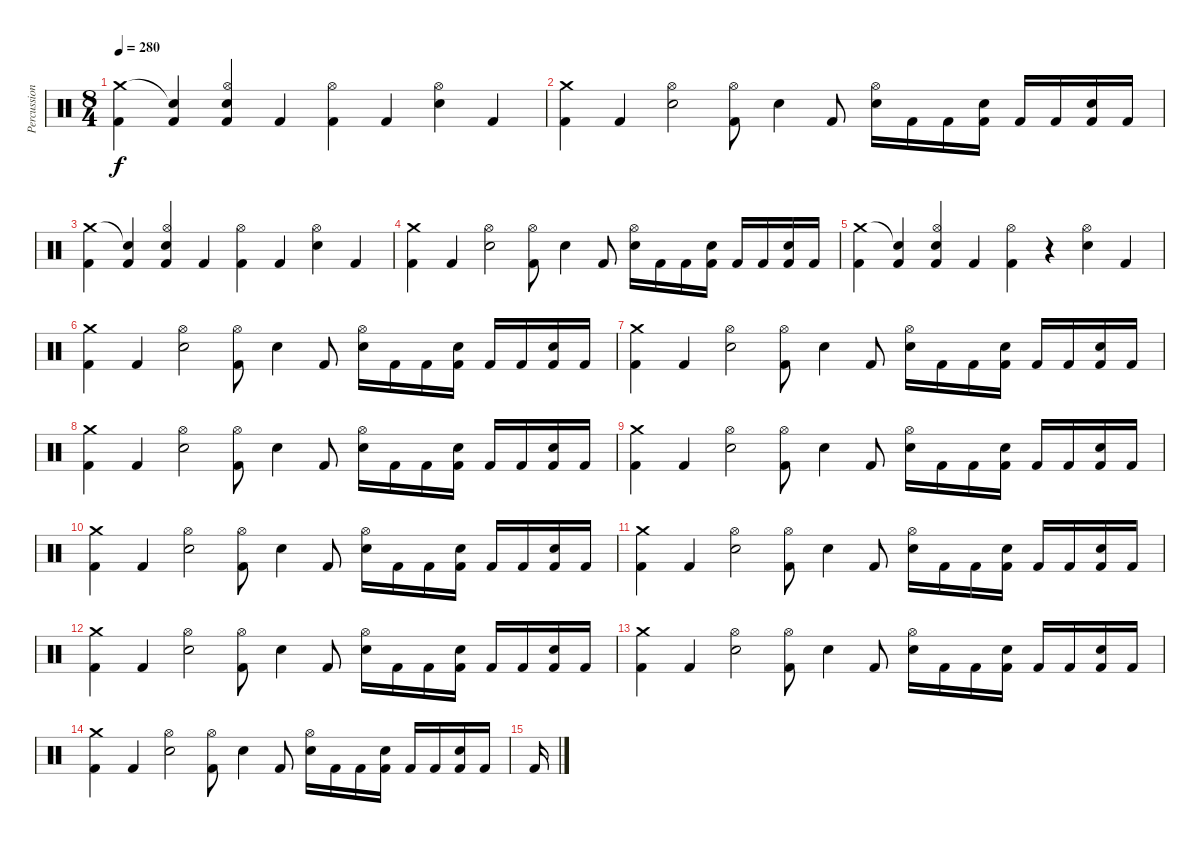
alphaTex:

\track ("Percussion" "Percussion") {instrument percussion}
\staff {score}
\articulation defaults
\ts (8 4)
\tempo 280
\clef neutral
\ks c
("Crash medium (hit)" "Kick (hit) 2").4{dy f} ("Snare (hit)"{t} "Kick (hit) 2").4 ("Hi-Hat (open)" "Electric Snare (hit)" "Kick (hit) 2").4 "Kick (hit) 2".4 ("Hi-Hat (open)" "Kick (hit) 2").4 "Kick (hit) 2".4 ("Hi-Hat (open)" "Electric Snare (hit)").4 "Kick (hit) 2".4 |
("Crash medium (hit)" "Kick (hit) 2").4 "Kick (hit) 2".4 ("Hi-Hat (open)" "Electric Snare (hit)").2 ("Hi-Hat (open)" "Kick (hit) 2").8 "Electric Snare (hit)".4 "Kick (hit) 2".8 ("Hi-Hat (open)" "Electric Snare (hit)").16 "Kick (hit) 2".16 "Kick (hit) 2".16 ("Electric Snare (hit)" "Kick (hit) 2").16 "Kick (hit) 2".16 "Kick (hit) 2".16 ("Electric Snare (hit)" "Kick (hit) 2").16 "Kick (hit) 2".16 |
("Crash medium (hit)" "Kick (hit) 2").4 ("Snare (hit)"{t} "Kick (hit) 2").4 ("Hi-Hat (open)" "Electric Snare (hit)" "Kick (hit) 2").4 "Kick (hit) 2".4 ("Hi-Hat (open)" "Kick (hit) 2").4 "Kick (hit) 2".4 ("Hi-Hat (open)" "Electric Snare (hit)").4 "Kick (hit) 2".4 |
("Crash medium (hit)" "Kick (hit) 2").4 "Kick (hit) 2".4 ("Hi-Hat (open)" "Electric Snare (hit)").2 ("Hi-Hat (open)" "Kick (hit) 2").8 "Electric Snare (hit)".4 "Kick (hit) 2".8 ("Hi-Hat (open)" "Electric Snare (hit)").16 "Kick (hit) 2".16 "Kick (hit) 2".16 ("Electric Snare (hit)" "Kick (hit) 2").16 "Kick (hit) 2".16 "Kick (hit) 2".16 ("Electric Snare (hit)" "Kick (hit) 2").16 "Kick (hit) 2".16 |
("Crash medium (hit)" "Kick (hit) 2").4 ("Snare (hit)"{t} "Kick (hit) 2").4 ("Hi-Hat (open)" "Electric Snare (hit)" "Kick (hit) 2").4 "Kick (hit) 2".4 ("Hi-Hat (open)" "Kick (hit) 2").4 r.4 ("Hi-Hat (open)" "Electric Snare (hit)").4 "Kick (hit) 2".4 |
("Crash medium (hit)" "Kick (hit) 2").4 "Kick (hit) 2".4 ("Hi-Hat (open)" "Electric Snare (hit)").2 ("Hi-Hat (open)" "Kick (hit) 2").8 "Electric Snare (hit)".4 "Kick (hit) 2".8 ("Hi-Hat (open)" "Electric Snare (hit)").16 "Kick (hit) 2".16 "Kick (hit) 2".16 ("Electric Snare (hit)" "Kick (hit) 2").16 "Kick (hit) 2".16 "Kick (hit) 2".16 ("Electric Snare (hit)" "Kick (hit) 2").16 "Kick (hit) 2".16 |
("Crash medium (hit)" "Kick (hit) 2").4 "Kick (hit) 2".4 ("Hi-Hat (open)" "Electric Snare (hit)").2 ("Hi-Hat (open)" "Kick (hit) 2").8 "Electric Snare (hit)".4 "Kick (hit) 2".8 ("Hi-Hat (open)" "Electric Snare (hit)").16 "Kick (hit) 2".16 "Kick (hit) 2".16 ("Electric Snare (hit)" "Kick (hit) 2").16 "Kick (hit) 2".16 "Kick (hit) 2".16 ("Electric Snare (hit)" "Kick (hit) 2").16 "Kick (hit) 2".16 |
("Crash medium (hit)" "Kick (hit) 2").4 "Kick (hit) 2".4 ("Hi-Hat (open)" "Electric Snare (hit)").2 ("Hi-Hat (open)" "Kick (hit) 2").8 "Electric Snare (hit)".4 "Kick (hit) 2".8 ("Hi-Hat (open)" "Electric Snare (hit)").16 "Kick (hit) 2".16 "Kick (hit) 2".16 ("Electric Snare (hit)" "Kick (hit) 2").16 "Kick (hit) 2".16 "Kick (hit) 2".16 ("Electric Snare (hit)" "Kick (hit) 2").16 "Kick (hit) 2".16 |
("Crash medium (hit)" "Kick (hit) 2").4 "Kick (hit) 2".4 ("Hi-Hat (open)" "Electric Snare (hit)").2 ("Hi-Hat (open)" "Kick (hit) 2").8 "Electric Snare (hit)".4 "Kick (hit) 2".8 ("Hi-Hat (open)" "Electric Snare (hit)").16 "Kick (hit) 2".16 "Kick (hit) 2".16 ("Electric Snare (hit)" "Kick (hit) 2").16 "Kick (hit) 2".16 "Kick (hit) 2".16 ("Electric Snare (hit)" "Kick (hit) 2").16 "Kick (hit) 2".16 |
("Crash medium (hit)" "Kick (hit) 2").4 "Kick (hit) 2".4 ("Hi-Hat (open)" "Electric Snare (hit)").2 ("Hi-Hat (open)" "Kick (hit) 2").8 "Electric Snare (hit)".4 "Kick (hit) 2".8 ("Hi-Hat (open)" "Electric Snare (hit)").16 "Kick (hit) 2".16 "Kick (hit) 2".16 ("Electric Snare (hit)" "Kick (hit) 2").16 "Kick (hit) 2".16 "Kick (hit) 2".16 ("Electric Snare (hit)" "Kick (hit) 2").16 "Kick (hit) 2".16 |
("Crash medium (hit)" "Kick (hit) 2").4 "Kick (hit) 2".4 ("Hi-Hat (open)" "Electric Snare (hit)").2 ("Hi-Hat (open)" "Kick (hit) 2").8 "Electric Snare (hit)".4 "Kick (hit) 2".8 ("Hi-Hat (open)" "Electric Snare (hit)").16 "Kick (hit) 2".16 "Kick (hit) 2".16 ("Electric Snare (hit)" "Kick (hit) 2").16 "Kick (hit) 2".16 "Kick (hit) 2".16 ("Electric Snare (hit)" "Kick (hit) 2").16 "Kick (hit) 2".16 |
("Crash medium (hit)" "Kick (hit) 2").4 "Kick (hit) 2".4 ("Hi-Hat (open)" "Electric Snare (hit)").2 ("Hi-Hat (open)" "Kick (hit) 2").8 "Electric Snare (hit)".4 "Kick (hit) 2".8 ("Hi-Hat (open)" "Electric Snare (hit)").16 "Kick (hit) 2".16 "Kick (hit) 2".16 ("Electric Snare (hit)" "Kick (hit) 2").16 "Kick (hit) 2".16 "Kick (hit) 2".16 ("Electric Snare (hit)" "Kick (hit) 2").16 "Kick (hit) 2".16 |
("Crash medium (hit)" "Kick (hit) 2").4 "Kick (hit) 2".4 ("Hi-Hat (open)" "Electric Snare (hit)").2 ("Hi-Hat (open)" "Kick (hit) 2").8 "Electric Snare (hit)".4 "Kick (hit) 2".8 ("Hi-Hat (open)" "Electric Snare (hit)").16 "Kick (hit) 2".16 "Kick (hit) 2".16 ("Electric Snare (hit)" "Kick (hit) 2").16 "Kick (hit) 2".16 "Kick (hit) 2".16 ("Electric Snare (hit)" "Kick (hit) 2").16 "Kick (hit) 2".16 |
("Crash medium (hit)" "Kick (hit) 2").4 "Kick (hit) 2".4 ("Hi-Hat (open)" "Electric Snare (hit)").2 ("Hi-Hat (open)" "Kick (hit) 2").8 "Electric Snare (hit)".4 "Kick (hit) 2".8 ("Hi-Hat (open)" "Electric Snare (hit)").16 "Kick (hit) 2".16 "Kick (hit) 2".16 ("Electric Snare (hit)" "Kick (hit) 2").16 "Kick (hit) 2".16 "Kick (hit) 2".16 ("Electric Snare (hit)" "Kick (hit) 2").16 "Kick (hit) 2".16 |
"Kick (hit) 2".16
